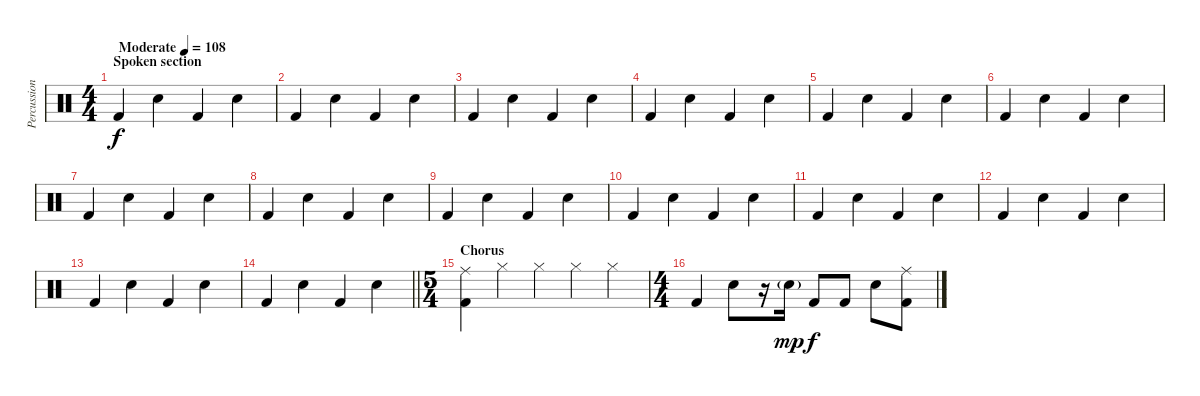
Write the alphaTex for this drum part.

\track ("Percussion" "Percussion") {instrument percussion}
\staff {score}
\articulation defaults
\ts (4 4)
\section ("" "Spoken section")
\tempo (108 "Moderate")
\clef neutral
\ks c "Kick (hit) 2".4{dy f} "Snare (hit) 2".4 "Kick (hit) 2".4 "Snare (hit) 2".4
|
"Kick (hit) 2".4 "Snare (hit) 2".4 "Kick (hit) 2".4 "Snare (hit) 2".4 |
"Kick (hit) 2".4 "Snare (hit) 2".4 "Kick (hit) 2".4 "Snare (hit) 2".4 |
"Kick (hit) 2".4 "Snare (hit) 2".4 "Kick (hit) 2".4 "Snare (hit) 2".4 |
"Kick (hit) 2".4 "Snare (hit) 2".4 "Kick (hit) 2".4 "Snare (hit) 2".4 |
"Kick (hit) 2".4 "Snare (hit) 2".4 "Kick (hit) 2".4 "Snare (hit) 2".4 |
"Kick (hit) 2".4 "Snare (hit) 2".4 "Kick (hit) 2".4 "Snare (hit) 2".4 |
"Kick (hit) 2".4 "Snare (hit) 2".4 "Kick (hit) 2".4 "Snare (hit) 2".4 |
"Kick (hit) 2".4 "Snare (hit) 2".4 "Kick (hit) 2".4 "Snare (hit) 2".4 |
"Kick (hit) 2".4 "Snare (hit) 2".4 "Kick (hit) 2".4 "Snare (hit) 2".4 |
"Kick (hit) 2".4 "Snare (hit) 2".4 "Kick (hit) 2".4 "Snare (hit) 2".4 |
"Kick (hit) 2".4 "Snare (hit) 2".4 "Kick (hit) 2".4 "Snare (hit) 2".4 |
"Kick (hit) 2".4 "Snare (hit) 2".4 "Kick (hit) 2".4 "Snare (hit) 2".4 |
\barLineRight lightlight "Kick (hit) 2".4 "Snare (hit) 2".4 "Kick (hit) 2".4 "Snare (hit) 2".4
|
\ts (5 4)
\section ("" "Chorus")
("Ride (middle)" "Kick (hit) 2").4 "Hi-Hat (closed)".4 "Hi-Hat (closed)".4 "Hi-Hat (closed)".4 "Hi-Hat (closed)".4 |
\ts (4 4)
"Kick (hit) 2".4 "Snare (hit) 2".8 r.16 "Snare (hit) 2"{g}.16{dy mp} "Kick (hit) 2".8{dy f} "Kick (hit) 2".8 "Snare (hit) 2".8 ("Ride (middle)" "Kick (hit) 2").8
